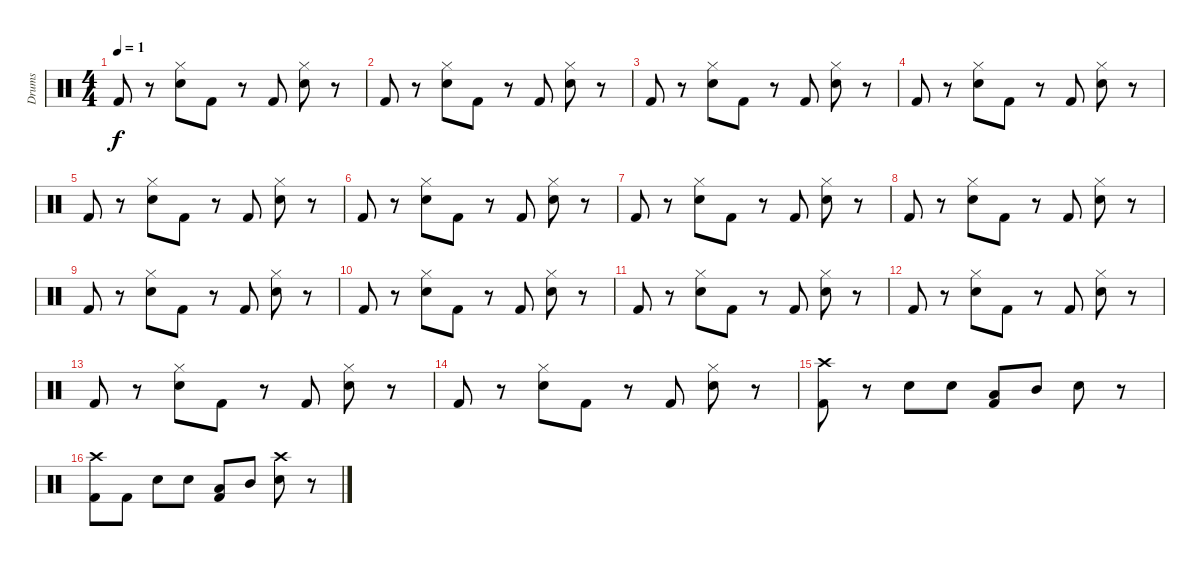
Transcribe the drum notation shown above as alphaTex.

\track ("Drums" "Drums") {instrument percussion}
\staff {score}
\articulation defaults
\ts (4 4)
\tempo 1
\clef neutral
\ks c "Kick (hit) 2".8{dy f}
r.8 ("Hi-Hat (closed)" "Snare (hit) 2").8 "Kick (hit) 2".8 r.8 "Kick (hit) 2".8 ("Hi-Hat (closed)" "Snare (hit) 2").8 r.8 |
"Kick (hit) 2".8 r.8 ("Hi-Hat (closed)" "Snare (hit) 2").8 "Kick (hit) 2".8 r.8 "Kick (hit) 2".8 ("Hi-Hat (closed)" "Snare (hit) 2").8 r.8 |
"Kick (hit) 2".8 r.8 ("Hi-Hat (closed)" "Snare (hit) 2").8 "Kick (hit) 2".8 r.8 "Kick (hit) 2".8 ("Hi-Hat (closed)" "Snare (hit) 2").8 r.8 |
"Kick (hit) 2".8 r.8 ("Hi-Hat (closed)" "Snare (hit) 2").8 "Kick (hit) 2".8 r.8 "Kick (hit) 2".8 ("Hi-Hat (closed)" "Snare (hit) 2").8 r.8 |
"Kick (hit) 2".8 r.8 ("Hi-Hat (closed)" "Snare (hit) 2").8 "Kick (hit) 2".8 r.8 "Kick (hit) 2".8 ("Hi-Hat (closed)" "Snare (hit) 2").8 r.8 |
"Kick (hit) 2".8 r.8 ("Hi-Hat (closed)" "Snare (hit) 2").8 "Kick (hit) 2".8 r.8 "Kick (hit) 2".8 ("Hi-Hat (closed)" "Snare (hit) 2").8 r.8 |
"Kick (hit) 2".8 r.8 ("Hi-Hat (closed)" "Snare (hit) 2").8 "Kick (hit) 2".8 r.8 "Kick (hit) 2".8 ("Hi-Hat (closed)" "Snare (hit) 2").8 r.8 |
"Kick (hit) 2".8 r.8 ("Hi-Hat (closed)" "Snare (hit) 2").8 "Kick (hit) 2".8 r.8 "Kick (hit) 2".8 ("Hi-Hat (closed)" "Snare (hit) 2").8 r.8 |
"Kick (hit) 2".8 r.8 ("Hi-Hat (closed)" "Snare (hit) 2").8 "Kick (hit) 2".8 r.8 "Kick (hit) 2".8 ("Hi-Hat (closed)" "Snare (hit) 2").8 r.8 |
"Kick (hit) 2".8 r.8 ("Hi-Hat (closed)" "Snare (hit) 2").8 "Kick (hit) 2".8 r.8 "Kick (hit) 2".8 ("Hi-Hat (closed)" "Snare (hit) 2").8 r.8 |
"Kick (hit) 2".8 r.8 ("Hi-Hat (closed)" "Snare (hit) 2").8 "Kick (hit) 2".8 r.8 "Kick (hit) 2".8 ("Hi-Hat (closed)" "Snare (hit) 2").8 r.8 |
"Kick (hit) 2".8 r.8 ("Hi-Hat (closed)" "Snare (hit) 2").8 "Kick (hit) 2".8 r.8 "Kick (hit) 2".8 ("Hi-Hat (closed)" "Snare (hit) 2").8 r.8 |
"Kick (hit) 2".8 r.8 ("Hi-Hat (closed)" "Snare (hit) 2").8 "Kick (hit) 2".8 r.8 "Kick (hit) 2".8 ("Hi-Hat (closed)" "Snare (hit) 2").8 r.8 |
"Kick (hit) 2".8 r.8 ("Hi-Hat (closed)" "Snare (hit) 2").8 "Kick (hit) 2".8 r.8 "Kick (hit) 2".8 ("Hi-Hat (closed)" "Snare (hit) 2").8 r.8 |
("Crash high (hit)" "Kick (hit) 2").8 r.8 "Snare (hit) 2".8 "Snare (hit) 2".8 ("Low Tom (hit)" "Kick (hit) 2").8 "Mid Tom (hit)".8 "Snare (hit) 2".8 r.8 |
("Crash high (hit)" "Kick (hit) 2").8 "Kick (hit) 2".8 "Snare (hit) 2".8 "Snare (hit) 2".8 ("Low Tom (hit)" "Kick (hit) 2").8 "Mid Tom (hit)".8 ("Crash high (hit)" "Snare (hit) 2").8 r.8
